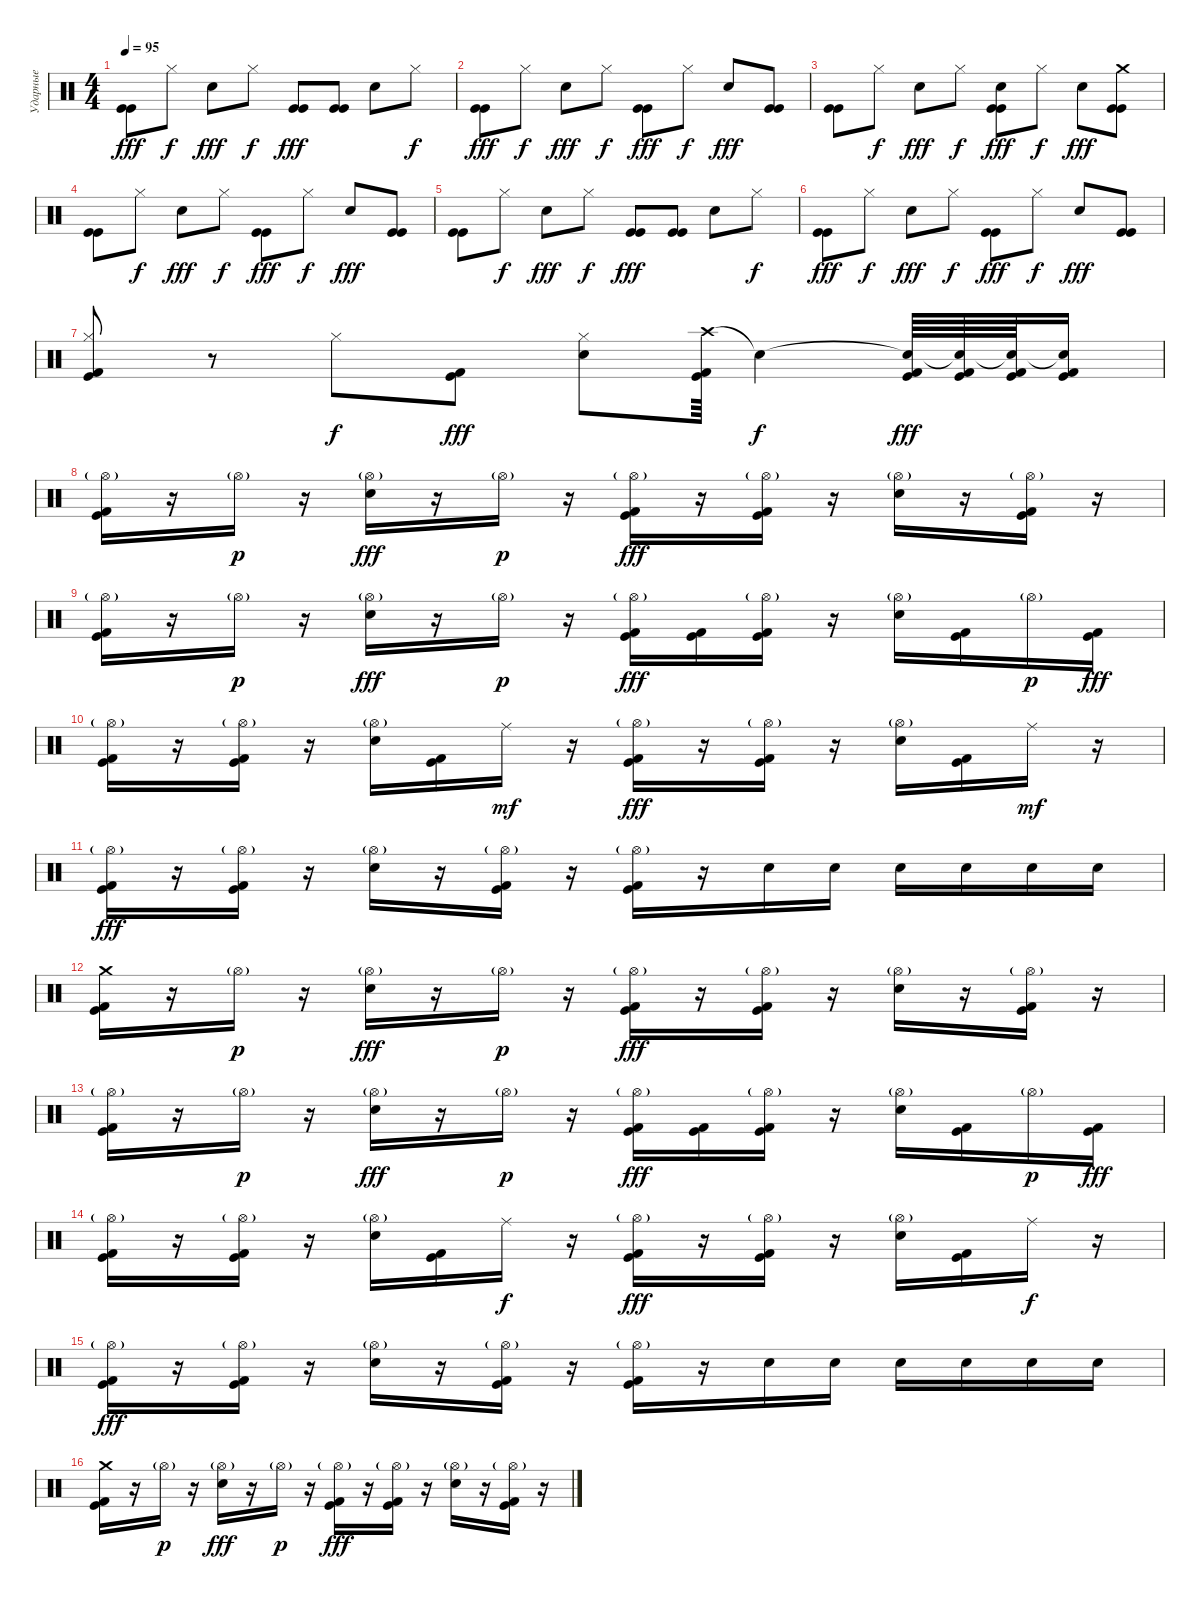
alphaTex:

\track ("Ударные" "Ударные") {instrument percussion}
\staff {score}
\articulation defaults
\ts (4 4)
\tempo 95
\clef neutral
\ks c
("Kick (hit)" "Kick (hit)").8{dy fff} "Hi-Hat (closed)".8{dy f} "Snare (hit) 2".8{dy fff} "Hi-Hat (closed)".8{dy f} ("Kick (hit)" "Kick (hit)").8{dy fff} ("Kick (hit)" "Kick (hit)").8 "Snare (hit) 2".8 "Hi-Hat (closed)".8{dy f} |
("Kick (hit)" "Kick (hit)").8{dy fff} "Hi-Hat (closed)".8{dy f} "Snare (hit) 2".8{dy fff} "Hi-Hat (closed)".8{dy f} ("Kick (hit)" "Kick (hit)").8{dy fff} "Hi-Hat (closed)".8{dy f} "Snare (hit) 2".8{dy fff} ("Kick (hit)" "Kick (hit)").8 |
("Kick (hit)" "Kick (hit)").8 "Hi-Hat (closed)".8{dy f} "Snare (hit) 2".8{dy fff} "Hi-Hat (closed)".8{dy f} ("Snare (hit) 2" "Kick (hit)" "Kick (hit)").8{dy fff} "Hi-Hat (closed)".8{dy f} "Snare (hit) 2".8{dy fff} ("Crash medium (hit)" "Kick (hit)" "Kick (hit)").8 |
("Kick (hit)" "Kick (hit)").8 "Hi-Hat (closed)".8{dy f} "Snare (hit) 2".8{dy fff} "Hi-Hat (closed)".8{dy f} ("Kick (hit)" "Kick (hit)").8{dy fff} "Hi-Hat (closed)".8{dy f} "Snare (hit) 2".8{dy fff} ("Kick (hit)" "Kick (hit)").8 |
("Kick (hit)" "Kick (hit)").8 "Hi-Hat (closed)".8{dy f} "Snare (hit) 2".8{dy fff} "Hi-Hat (closed)".8{dy f} ("Kick (hit)" "Kick (hit)").8{dy fff} ("Kick (hit)" "Kick (hit)").8 "Snare (hit) 2".8 "Hi-Hat (closed)".8{dy f} |
("Kick (hit)" "Kick (hit)").8{dy fff} "Hi-Hat (closed)".8{dy f} "Snare (hit) 2".8{dy fff} "Hi-Hat (closed)".8{dy f} ("Kick (hit)" "Kick (hit)").8{dy fff} "Hi-Hat (closed)".8{dy f} "Snare (hit) 2".8{dy fff} ("Kick (hit)" "Kick (hit)").8 |
("Hi-Hat (closed)" "Kick (hit)" "Kick (hit) 2").8 r.8 "Hi-Hat (closed)".8{dy f} ("Kick (hit)" "Kick (hit) 2").8{dy fff} ("Hi-Hat (closed)" "Snare (hit) 2").8 ("Crash high (hit)" "Kick (hit)" "Kick (hit) 2").64 "Snare (hit)"{t}.4{dy f} ("Snare (hit)"{t} "Kick (hit)" "Kick (hit) 2").64{dy fff} ("Snare (hit)"{t} "Kick (hit)" "Kick (hit) 2").64 ("Snare (hit)"{t} "Kick (hit)" "Kick (hit) 2").64 ("Snare (hit)"{t} "Kick (hit)" "Kick (hit) 2").16 |
("Hi-Hat (open)"{g} "Kick (hit) 2" "Kick (hit)").16 r.16 "Hi-Hat (open)"{g}.16{dy p} r.16 ("Hi-Hat (open)"{g} "Electric Snare (hit)").16{dy fff} r.16 "Hi-Hat (open)"{g}.16{dy p} r.16 ("Hi-Hat (open)"{g} "Kick (hit) 2" "Kick (hit)").16{dy fff} r.16 ("Hi-Hat (open)"{g} "Kick (hit) 2" "Kick (hit)").16 r.16 ("Hi-Hat (open)"{g} "Electric Snare (hit)").16 r.16 ("Hi-Hat (open)"{g} "Kick (hit) 2" "Kick (hit)").16 r.16 |
("Hi-Hat (open)"{g} "Kick (hit) 2" "Kick (hit)").16 r.16 "Hi-Hat (open)"{g}.16{dy p} r.16 ("Hi-Hat (open)"{g} "Electric Snare (hit)").16{dy fff} r.16 "Hi-Hat (open)"{g}.16{dy p} r.16 ("Hi-Hat (open)"{g} "Kick (hit) 2" "Kick (hit)").16{dy fff} ("Kick (hit) 2" "Kick (hit)").16 ("Hi-Hat (open)"{g} "Kick (hit) 2" "Kick (hit)").16 r.16 ("Hi-Hat (open)"{g} "Electric Snare (hit)").16 ("Kick (hit) 2" "Kick (hit)").16 "Hi-Hat (open)"{g}.16{dy p} ("Kick (hit) 2" "Kick (hit)").16{dy fff} |
("Hi-Hat (open)"{g} "Kick (hit) 2" "Kick (hit)").16 r.16 ("Hi-Hat (open)"{g} "Kick (hit) 2" "Kick (hit)").16 r.16 ("Hi-Hat (open)"{g} "Electric Snare (hit)").16 ("Kick (hit) 2" "Kick (hit)").16 "Ride (middle)".16{dy mf} r.16 ("Hi-Hat (open)"{g} "Kick (hit) 2" "Kick (hit)").16{dy fff} r.16 ("Hi-Hat (open)"{g} "Kick (hit) 2" "Kick (hit)").16 r.16 ("Hi-Hat (open)"{g} "Electric Snare (hit)").16 ("Kick (hit) 2" "Kick (hit)").16 "Ride (middle)".16{dy mf} r.16 |
("Hi-Hat (open)"{g} "Kick (hit) 2" "Kick (hit)").16{dy fff} r.16 ("Hi-Hat (open)"{g} "Kick (hit) 2" "Kick (hit)").16 r.16 ("Hi-Hat (open)"{g} "Electric Snare (hit)").16 r.16 ("Hi-Hat (open)"{g} "Kick (hit) 2" "Kick (hit)").16 r.16 ("Hi-Hat (open)"{g} "Kick (hit) 2" "Kick (hit)").16 r.16 "Electric Snare (hit)".16 "Electric Snare (hit)".16 "Electric Snare (hit)".16 "Electric Snare (hit)".16 "Electric Snare (hit)".16 "Electric Snare (hit)".16 |
("Crash medium (hit)" "Kick (hit) 2" "Kick (hit)").16 r.16 "Hi-Hat (open)"{g}.16{dy p} r.16 ("Hi-Hat (open)"{g} "Electric Snare (hit)").16{dy fff} r.16 "Hi-Hat (open)"{g}.16{dy p} r.16 ("Hi-Hat (open)"{g} "Kick (hit) 2" "Kick (hit)").16{dy fff} r.16 ("Hi-Hat (open)"{g} "Kick (hit) 2" "Kick (hit)").16 r.16 ("Hi-Hat (open)"{g} "Electric Snare (hit)").16 r.16 ("Hi-Hat (open)"{g} "Kick (hit) 2" "Kick (hit)").16 r.16 |
("Hi-Hat (open)"{g} "Kick (hit) 2" "Kick (hit)").16 r.16 "Hi-Hat (open)"{g}.16{dy p} r.16 ("Hi-Hat (open)"{g} "Electric Snare (hit)").16{dy fff} r.16 "Hi-Hat (open)"{g}.16{dy p} r.16 ("Hi-Hat (open)"{g} "Kick (hit) 2" "Kick (hit)").16{dy fff} ("Kick (hit) 2" "Kick (hit)").16 ("Hi-Hat (open)"{g} "Kick (hit) 2" "Kick (hit)").16 r.16 ("Hi-Hat (open)"{g} "Electric Snare (hit)").16 ("Kick (hit) 2" "Kick (hit)").16 "Hi-Hat (open)"{g}.16{dy p} ("Kick (hit) 2" "Kick (hit)").16{dy fff} |
("Hi-Hat (open)"{g} "Kick (hit) 2" "Kick (hit)").16 r.16 ("Hi-Hat (open)"{g} "Kick (hit) 2" "Kick (hit)").16 r.16 ("Hi-Hat (open)"{g} "Electric Snare (hit)").16 ("Kick (hit) 2" "Kick (hit)").16 "Ride (middle)".16{dy f} r.16 ("Hi-Hat (open)"{g} "Kick (hit) 2" "Kick (hit)").16{dy fff} r.16 ("Hi-Hat (open)"{g} "Kick (hit) 2" "Kick (hit)").16 r.16 ("Hi-Hat (open)"{g} "Electric Snare (hit)").16 ("Kick (hit) 2" "Kick (hit)").16 "Ride (middle)".16{dy f} r.16 |
("Hi-Hat (open)"{g} "Kick (hit) 2" "Kick (hit)").16{dy fff} r.16 ("Hi-Hat (open)"{g} "Kick (hit) 2" "Kick (hit)").16 r.16 ("Hi-Hat (open)"{g} "Electric Snare (hit)").16 r.16 ("Hi-Hat (open)"{g} "Kick (hit) 2" "Kick (hit)").16 r.16 ("Hi-Hat (open)"{g} "Kick (hit) 2" "Kick (hit)").16 r.16 "Electric Snare (hit)".16 "Electric Snare (hit)".16 "Electric Snare (hit)".16 "Electric Snare (hit)".16 "Electric Snare (hit)".16 "Electric Snare (hit)".16 |
("Crash medium (hit)" "Kick (hit) 2" "Kick (hit)").16 r.16 "Hi-Hat (open)"{g}.16{dy p} r.16 ("Hi-Hat (open)"{g} "Electric Snare (hit)").16{dy fff} r.16 "Hi-Hat (open)"{g}.16{dy p} r.16 ("Hi-Hat (open)"{g} "Kick (hit) 2" "Kick (hit)").16{dy fff} r.16 ("Hi-Hat (open)"{g} "Kick (hit) 2" "Kick (hit)").16 r.16 ("Hi-Hat (open)"{g} "Electric Snare (hit)").16 r.16 ("Hi-Hat (open)"{g} "Kick (hit) 2" "Kick (hit)").16 r.16
